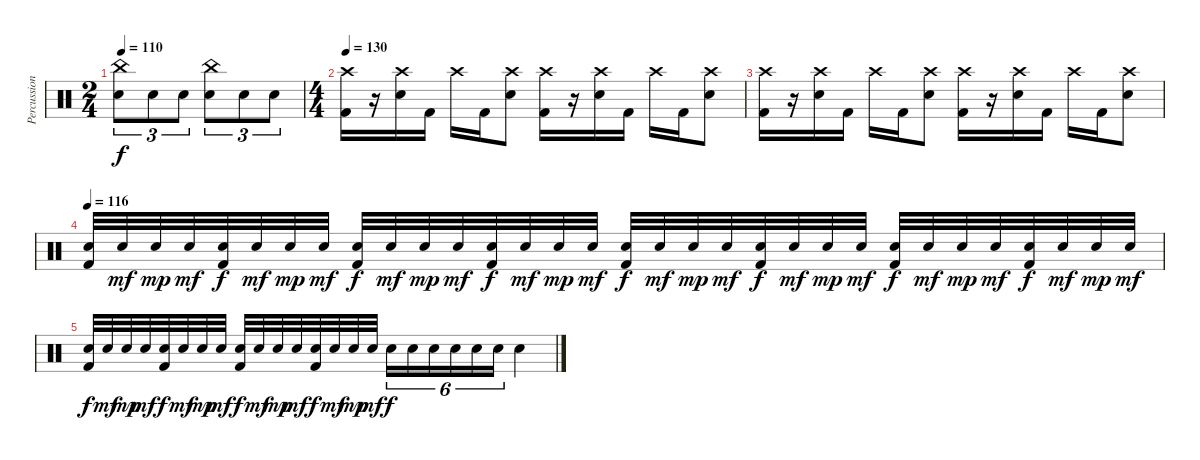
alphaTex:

\track ("Percussion" "Percussion") {instrument percussion}
\staff {score}
\articulation defaults
\ts (2 4)
\tempo 110
\clef neutral
\ks c
("Electric Snare (hit)" "China (hit)").8{tu (3 2) dy f} "Electric Snare (hit)".8{tu (3 2)} "Electric Snare (hit)".8{tu (3 2)} ("Electric Snare (hit)" "China (hit)").8{tu (3 2)} "Electric Snare (hit)".8{tu (3 2)} "Electric Snare (hit)".8{tu (3 2)} |
\ts (4 4)
\tempo 130
("Kick (hit) 2" "Crash high (hit)").16 r.16 ("Electric Snare (hit)" "Crash high (hit)").16 "Kick (hit) 2".16 "Crash high (hit)".16 "Kick (hit) 2".16 ("Electric Snare (hit)" "Crash high (hit)").8 ("Kick (hit) 2" "Crash high (hit)").16 r.16 ("Electric Snare (hit)" "Crash high (hit)").16 "Kick (hit) 2".16 "Crash high (hit)".16 "Kick (hit) 2".16 ("Electric Snare (hit)" "Crash high (hit)").8 |
("Kick (hit) 2" "Crash high (hit)").16 r.16 ("Electric Snare (hit)" "Crash high (hit)").16 "Kick (hit) 2".16 "Crash high (hit)".16 "Kick (hit) 2".16 ("Electric Snare (hit)" "Crash high (hit)").8 ("Kick (hit) 2" "Crash high (hit)").16 r.16 ("Electric Snare (hit)" "Crash high (hit)").16 "Kick (hit) 2".16 "Crash high (hit)".16 "Kick (hit) 2".16 ("Electric Snare (hit)" "Crash high (hit)").8 |
\tempo 116
("Kick (hit) 2" "Electric Snare (hit)").32 "Electric Snare (hit)".32{dy mf} "Electric Snare (hit)".32{dy mp} "Electric Snare (hit)".32{dy mf} ("Kick (hit) 2" "Electric Snare (hit)").32{dy f} "Electric Snare (hit)".32{dy mf} "Electric Snare (hit)".32{dy mp} "Electric Snare (hit)".32{dy mf} ("Kick (hit) 2" "Electric Snare (hit)").32{dy f} "Electric Snare (hit)".32{dy mf} "Electric Snare (hit)".32{dy mp} "Electric Snare (hit)".32{dy mf} ("Kick (hit) 2" "Electric Snare (hit)").32{dy f} "Electric Snare (hit)".32{dy mf} "Electric Snare (hit)".32{dy mp} "Electric Snare (hit)".32{dy mf} ("Kick (hit) 2" "Electric Snare (hit)").32{dy f} "Electric Snare (hit)".32{dy mf} "Electric Snare (hit)".32{dy mp} "Electric Snare (hit)".32{dy mf} ("Kick (hit) 2" "Electric Snare (hit)").32{dy f} "Electric Snare (hit)".32{dy mf} "Electric Snare (hit)".32{dy mp} "Electric Snare (hit)".32{dy mf} ("Kick (hit) 2" "Electric Snare (hit)").32{dy f} "Electric Snare (hit)".32{dy mf} "Electric Snare (hit)".32{dy mp} "Electric Snare (hit)".32{dy mf} ("Kick (hit) 2" "Electric Snare (hit)").32{dy f} "Electric Snare (hit)".32{dy mf} "Electric Snare (hit)".32{dy mp} "Electric Snare (hit)".32{dy mf} |
("Kick (hit) 2" "Electric Snare (hit)").32{dy f} "Electric Snare (hit)".32{dy mf} "Electric Snare (hit)".32{dy mp} "Electric Snare (hit)".32{dy mf} ("Kick (hit) 2" "Electric Snare (hit)").32{dy f} "Electric Snare (hit)".32{dy mf} "Electric Snare (hit)".32{dy mp} "Electric Snare (hit)".32{dy mf} ("Kick (hit) 2" "Electric Snare (hit)").32{dy f} "Electric Snare (hit)".32{dy mf} "Electric Snare (hit)".32{dy mp} "Electric Snare (hit)".32{dy mf} ("Kick (hit) 2" "Electric Snare (hit)").32{dy f} "Electric Snare (hit)".32{dy mf} "Electric Snare (hit)".32{dy mp} "Electric Snare (hit)".32{dy mf} "Electric Snare (hit)".16{tu (6 4) dy f} "Electric Snare (hit)".16{tu (6 4)} "Electric Snare (hit)".16{tu (6 4)} "Electric Snare (hit)".16{tu (6 4)} "Electric Snare (hit)".16{tu (6 4)} "Electric Snare (hit)".16{tu (6 4)} "Electric Snare (hit)".4
